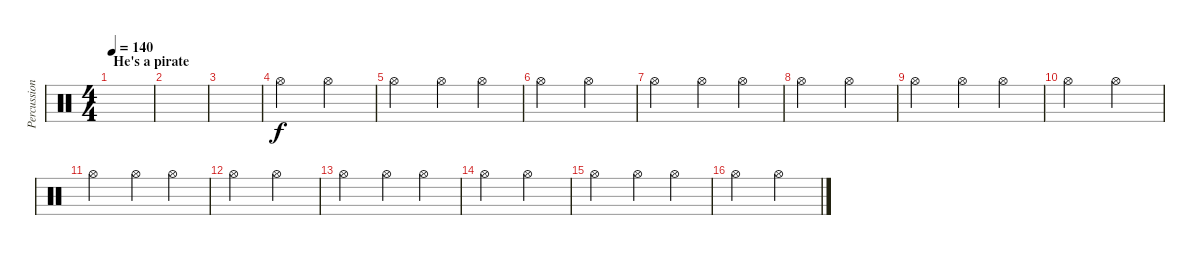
\track ("Percussions" "Percussion") {instrument percussion}
\staff {score}
\articulation defaults
\ts (4 4)
\section ("" "He's a pirate")
\tempo 140
\clef neutral
\ks c
|
|
|
"Hi-Hat (open)".2 "Hi-Hat (open)".2 |
"Hi-Hat (open)".2 "Hi-Hat (open)".4 "Hi-Hat (open)".4 |
"Hi-Hat (open)".2 "Hi-Hat (open)".2 |
"Hi-Hat (open)".2 "Hi-Hat (open)".4 "Hi-Hat (open)".4 |
"Hi-Hat (open)".2 "Hi-Hat (open)".2 |
"Hi-Hat (open)".2 "Hi-Hat (open)".4 "Hi-Hat (open)".4 |
"Hi-Hat (open)".2 "Hi-Hat (open)".2 |
"Hi-Hat (open)".2 "Hi-Hat (open)".4 "Hi-Hat (open)".4 |
"Hi-Hat (open)".2 "Hi-Hat (open)".2 |
"Hi-Hat (open)".2 "Hi-Hat (open)".4 "Hi-Hat (open)".4 |
"Hi-Hat (open)".2 "Hi-Hat (open)".2 |
"Hi-Hat (open)".2 "Hi-Hat (open)".4 "Hi-Hat (open)".4 |
"Hi-Hat (open)".2 "Hi-Hat (open)".2
